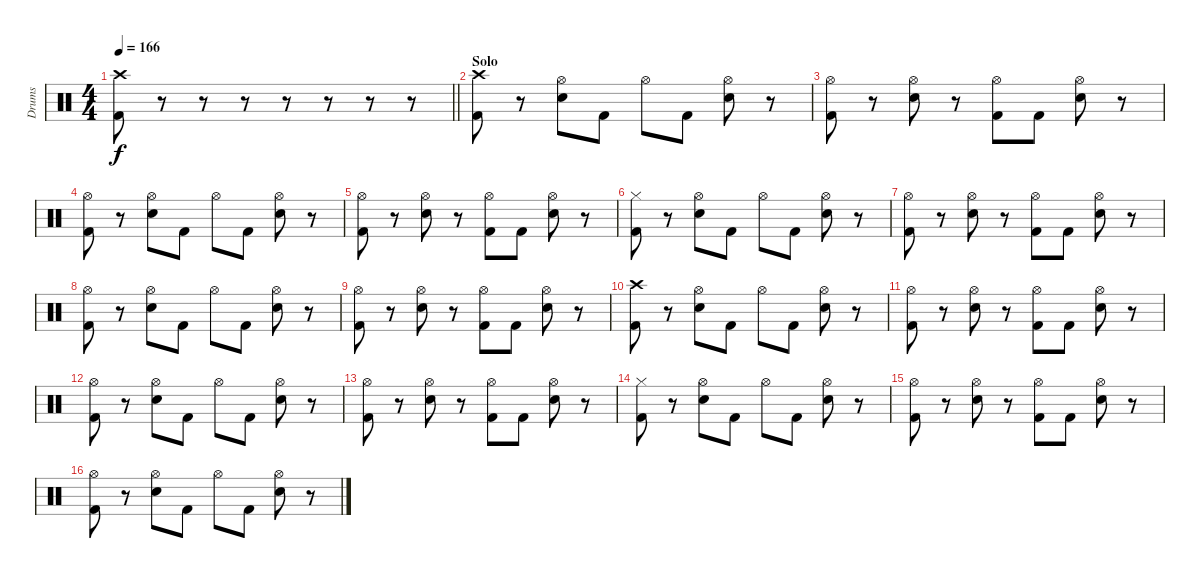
\track ("Drums" "Drums") {instrument percussion}
\staff {score}
\articulation defaults
\ts (4 4)
\tempo 166
\clef neutral
\barLineRight lightlight
\ks c
("Kick (hit) 2" "Crash high (hit)").8{dy f} r.8 r.8 r.8 r.8 r.8 r.8 r.8 |
\section ("" "Solo")
("Crash high (hit)" "Kick (hit) 2").8 r.8 ("Hi-Hat (open)" "Electric Snare (hit)").8 "Kick (hit) 2".8 "Hi-Hat (open)".8 "Kick (hit) 2".8 ("Hi-Hat (open)" "Electric Snare (hit)").8 r.8 |
("Hi-Hat (open)" "Kick (hit) 2").8 r.8 ("Hi-Hat (open)" "Electric Snare (hit)").8 r.8 ("Hi-Hat (open)" "Kick (hit) 2").8 "Kick (hit) 2".8 ("Hi-Hat (open)" "Electric Snare (hit)").8 r.8 |
("Hi-Hat (open)" "Kick (hit) 2").8 r.8 ("Hi-Hat (open)" "Electric Snare (hit)").8 "Kick (hit) 2".8 "Hi-Hat (open)".8 "Kick (hit) 2".8 ("Hi-Hat (open)" "Electric Snare (hit)").8 r.8 |
("Hi-Hat (open)" "Kick (hit) 2").8 r.8 ("Hi-Hat (open)" "Electric Snare (hit)").8 r.8 ("Hi-Hat (open)" "Kick (hit) 2").8 "Kick (hit) 2".8 ("Hi-Hat (open)" "Electric Snare (hit)").8 r.8 |
("Hi-Hat (closed)" "Kick (hit) 2").8 r.8 ("Hi-Hat (open)" "Electric Snare (hit)").8 "Kick (hit) 2".8 "Hi-Hat (open)".8 "Kick (hit) 2".8 ("Hi-Hat (open)" "Electric Snare (hit)").8 r.8 |
("Hi-Hat (open)" "Kick (hit) 2").8 r.8 ("Hi-Hat (open)" "Electric Snare (hit)").8 r.8 ("Hi-Hat (open)" "Kick (hit) 2").8 "Kick (hit) 2".8 ("Hi-Hat (open)" "Electric Snare (hit)").8 r.8 |
("Hi-Hat (open)" "Kick (hit) 2").8 r.8 ("Hi-Hat (open)" "Electric Snare (hit)").8 "Kick (hit) 2".8 "Hi-Hat (open)".8 "Kick (hit) 2".8 ("Hi-Hat (open)" "Electric Snare (hit)").8 r.8 |
("Hi-Hat (open)" "Kick (hit) 2").8 r.8 ("Hi-Hat (open)" "Electric Snare (hit)").8 r.8 ("Hi-Hat (open)" "Kick (hit) 2").8 "Kick (hit) 2".8 ("Hi-Hat (open)" "Electric Snare (hit)").8 r.8 |
("Crash high (hit)" "Kick (hit) 2").8 r.8 ("Hi-Hat (open)" "Electric Snare (hit)").8 "Kick (hit) 2".8 "Hi-Hat (open)".8 "Kick (hit) 2".8 ("Hi-Hat (open)" "Electric Snare (hit)").8 r.8 |
("Hi-Hat (open)" "Kick (hit) 2").8 r.8 ("Hi-Hat (open)" "Electric Snare (hit)").8 r.8 ("Hi-Hat (open)" "Kick (hit) 2").8 "Kick (hit) 2".8 ("Hi-Hat (open)" "Electric Snare (hit)").8 r.8 |
("Hi-Hat (open)" "Kick (hit) 2").8 r.8 ("Hi-Hat (open)" "Electric Snare (hit)").8 "Kick (hit) 2".8 "Hi-Hat (open)".8 "Kick (hit) 2".8 ("Hi-Hat (open)" "Electric Snare (hit)").8 r.8 |
("Hi-Hat (open)" "Kick (hit) 2").8 r.8 ("Hi-Hat (open)" "Electric Snare (hit)").8 r.8 ("Hi-Hat (open)" "Kick (hit) 2").8 "Kick (hit) 2".8 ("Hi-Hat (open)" "Electric Snare (hit)").8 r.8 |
("Hi-Hat (closed)" "Kick (hit) 2").8 r.8 ("Hi-Hat (open)" "Electric Snare (hit)").8 "Kick (hit) 2".8 "Hi-Hat (open)".8 "Kick (hit) 2".8 ("Hi-Hat (open)" "Electric Snare (hit)").8 r.8 |
("Hi-Hat (open)" "Kick (hit) 2").8 r.8 ("Hi-Hat (open)" "Electric Snare (hit)").8 r.8 ("Hi-Hat (open)" "Kick (hit) 2").8 "Kick (hit) 2".8 ("Hi-Hat (open)" "Electric Snare (hit)").8 r.8 |
("Hi-Hat (open)" "Kick (hit) 2").8 r.8 ("Hi-Hat (open)" "Electric Snare (hit)").8 "Kick (hit) 2".8 "Hi-Hat (open)".8 "Kick (hit) 2".8 ("Hi-Hat (open)" "Electric Snare (hit)").8 r.8
